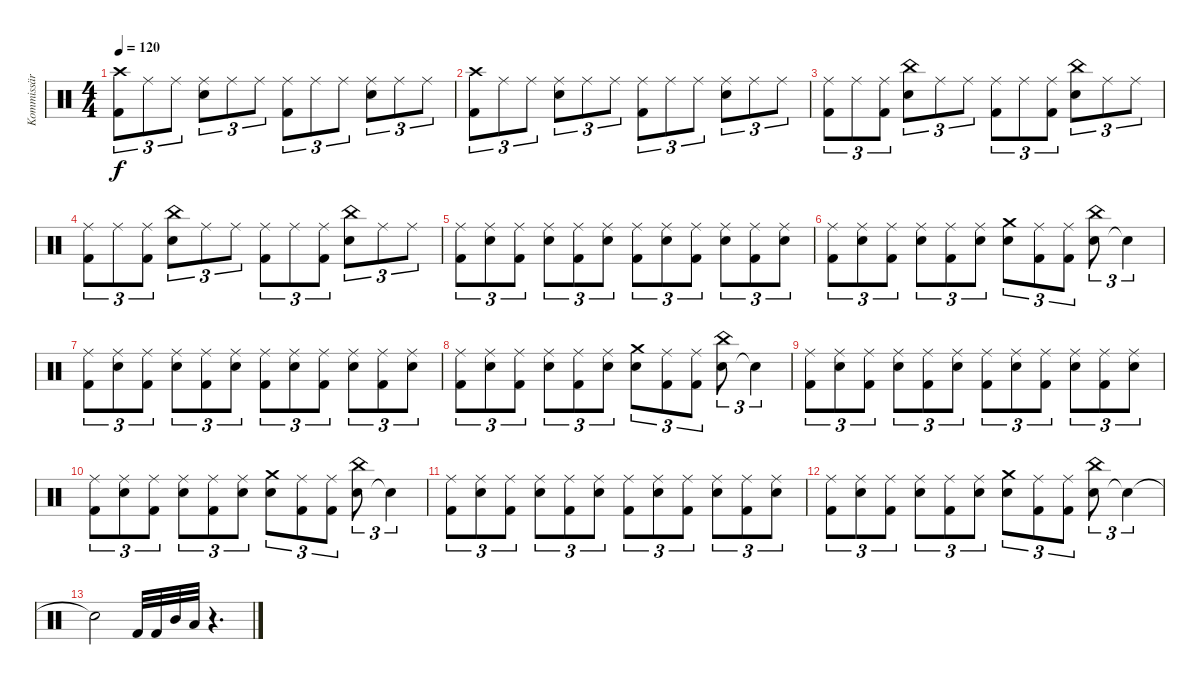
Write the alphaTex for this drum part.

\track ("Kommissär Ogrim" "Kommissär ") {instrument percussion}
\staff {score}
\articulation defaults
\ts (4 4)
\tempo 120
\clef neutral
\ks c
("Crash high (hit)" "Kick (hit) 2").8{tu (3 2) dy f} "Ride (middle)".8{tu (3 2)} "Ride (middle)".8{tu (3 2)} ("Snare (hit) 2" "Ride (middle)").8{tu (3 2)} "Ride (middle)".8{tu (3 2)} "Ride (middle)".8{tu (3 2)} ("Ride (middle)" "Kick (hit) 2").8{tu (3 2)} "Ride (middle)".8{tu (3 2)} "Ride (middle)".8{tu (3 2)} ("Snare (hit) 2" "Ride (middle)").8{tu (3 2)} "Ride (middle)".8{tu (3 2)} "Ride (middle)".8{tu (3 2)} |
("Crash high (hit)" "Kick (hit) 2").8{tu (3 2)} "Ride (middle)".8{tu (3 2)} "Ride (middle)".8{tu (3 2)} ("Snare (hit) 2" "Ride (middle)").8{tu (3 2)} "Ride (middle)".8{tu (3 2)} "Ride (middle)".8{tu (3 2)} ("Ride (middle)" "Kick (hit) 2").8{tu (3 2)} "Ride (middle)".8{tu (3 2)} "Ride (middle)".8{tu (3 2)} ("Snare (hit) 2" "Ride (middle)").8{tu (3 2)} "Ride (middle)".8{tu (3 2)} "Ride (middle)".8{tu (3 2)} |
("Ride (middle)" "Kick (hit) 2").8{tu (3 2)} "Ride (middle)".8{tu (3 2)} ("Ride (middle)" "Kick (hit) 2").8{tu (3 2)} ("Snare (hit) 2" "China (hit)").8{tu (3 2)} "Ride (middle)".8{tu (3 2)} "Ride (middle)".8{tu (3 2)} ("Ride (middle)" "Kick (hit) 2").8{tu (3 2)} "Ride (middle)".8{tu (3 2)} ("Ride (middle)" "Kick (hit) 2").8{tu (3 2)} ("Snare (hit) 2" "China (hit)").8{tu (3 2)} "Ride (middle)".8{tu (3 2)} "Ride (middle)".8{tu (3 2)} |
("Ride (middle)" "Kick (hit) 2").8{tu (3 2)} "Ride (middle)".8{tu (3 2)} ("Ride (middle)" "Kick (hit) 2").8{tu (3 2)} ("Snare (hit) 2" "China (hit)").8{tu (3 2)} "Ride (middle)".8{tu (3 2)} "Ride (middle)".8{tu (3 2)} ("Ride (middle)" "Kick (hit) 2").8{tu (3 2)} "Ride (middle)".8{tu (3 2)} ("Ride (middle)" "Kick (hit) 2").8{tu (3 2)} ("Snare (hit) 2" "China (hit)").8{tu (3 2)} "Ride (middle)".8{tu (3 2)} "Ride (middle)".8{tu (3 2)} |
("Ride (middle)" "Kick (hit) 2").8{tu (3 2)} ("Snare (hit) 2" "Ride (middle)").8{tu (3 2)} ("Ride (middle)" "Kick (hit) 2").8{tu (3 2)} ("Snare (hit) 2" "Ride (middle)").8{tu (3 2)} ("Ride (middle)" "Kick (hit) 2").8{tu (3 2)} ("Snare (hit) 2" "Ride (middle)").8{tu (3 2)} ("Ride (middle)" "Kick (hit) 2").8{tu (3 2)} ("Snare (hit) 2" "Ride (middle)").8{tu (3 2)} ("Ride (middle)" "Kick (hit) 2").8{tu (3 2)} ("Snare (hit) 2" "Ride (middle)").8{tu (3 2)} ("Ride (middle)" "Kick (hit) 2").8{tu (3 2)} ("Snare (hit) 2" "Ride (middle)").8{tu (3 2)} |
("Ride (middle)" "Kick (hit) 2").8{tu (3 2)} ("Snare (hit) 2" "Ride (middle)").8{tu (3 2)} ("Ride (middle)" "Kick (hit) 2").8{tu (3 2)} ("Snare (hit) 2" "Ride (middle)").8{tu (3 2)} ("Ride (middle)" "Kick (hit) 2").8{tu (3 2)} ("Snare (hit) 2" "Ride (middle)").8{tu (3 2)} ("Snare (hit) 2" "Crash medium (hit)").8{tu (3 2)} ("Ride (middle)" "Kick (hit) 2").8{tu (3 2)} ("Ride (middle)" "Kick (hit) 2").8{tu (3 2)} ("Snare (hit) 2" "China (hit)").8{tu (3 2)} "Snare (hit)"{t}.4{tu (3 2)} |
("Ride (middle)" "Kick (hit) 2").8{tu (3 2)} ("Snare (hit) 2" "Ride (middle)").8{tu (3 2)} ("Ride (middle)" "Kick (hit) 2").8{tu (3 2)} ("Snare (hit) 2" "Ride (middle)").8{tu (3 2)} ("Ride (middle)" "Kick (hit) 2").8{tu (3 2)} ("Snare (hit) 2" "Ride (middle)").8{tu (3 2)} ("Ride (middle)" "Kick (hit) 2").8{tu (3 2)} ("Snare (hit) 2" "Ride (middle)").8{tu (3 2)} ("Ride (middle)" "Kick (hit) 2").8{tu (3 2)} ("Snare (hit) 2" "Ride (middle)").8{tu (3 2)} ("Ride (middle)" "Kick (hit) 2").8{tu (3 2)} ("Snare (hit) 2" "Ride (middle)").8{tu (3 2)} |
("Ride (middle)" "Kick (hit) 2").8{tu (3 2)} ("Snare (hit) 2" "Ride (middle)").8{tu (3 2)} ("Ride (middle)" "Kick (hit) 2").8{tu (3 2)} ("Snare (hit) 2" "Ride (middle)").8{tu (3 2)} ("Ride (middle)" "Kick (hit) 2").8{tu (3 2)} ("Snare (hit) 2" "Ride (middle)").8{tu (3 2)} ("Snare (hit) 2" "Crash medium (hit)").8{tu (3 2)} ("Ride (middle)" "Kick (hit) 2").8{tu (3 2)} ("Ride (middle)" "Kick (hit) 2").8{tu (3 2)} ("Snare (hit) 2" "China (hit)").8{tu (3 2)} "Snare (hit)"{t}.4{tu (3 2)} |
("Ride (middle)" "Kick (hit) 2").8{tu (3 2)} ("Snare (hit) 2" "Ride (middle)").8{tu (3 2)} ("Ride (middle)" "Kick (hit) 2").8{tu (3 2)} ("Snare (hit) 2" "Ride (middle)").8{tu (3 2)} ("Ride (middle)" "Kick (hit) 2").8{tu (3 2)} ("Snare (hit) 2" "Ride (middle)").8{tu (3 2)} ("Ride (middle)" "Kick (hit) 2").8{tu (3 2)} ("Snare (hit) 2" "Ride (middle)").8{tu (3 2)} ("Ride (middle)" "Kick (hit) 2").8{tu (3 2)} ("Snare (hit) 2" "Ride (middle)").8{tu (3 2)} ("Ride (middle)" "Kick (hit) 2").8{tu (3 2)} ("Snare (hit) 2" "Ride (middle)").8{tu (3 2)} |
("Ride (middle)" "Kick (hit) 2").8{tu (3 2)} ("Snare (hit) 2" "Ride (middle)").8{tu (3 2)} ("Ride (middle)" "Kick (hit) 2").8{tu (3 2)} ("Snare (hit) 2" "Ride (middle)").8{tu (3 2)} ("Ride (middle)" "Kick (hit) 2").8{tu (3 2)} ("Snare (hit) 2" "Ride (middle)").8{tu (3 2)} ("Snare (hit) 2" "Crash medium (hit)").8{tu (3 2)} ("Ride (middle)" "Kick (hit) 2").8{tu (3 2)} ("Ride (middle)" "Kick (hit) 2").8{tu (3 2)} ("Snare (hit) 2" "China (hit)").8{tu (3 2)} "Snare (hit)"{t}.4{tu (3 2)} |
("Ride (middle)" "Kick (hit) 2").8{tu (3 2)} ("Snare (hit) 2" "Ride (middle)").8{tu (3 2)} ("Ride (middle)" "Kick (hit) 2").8{tu (3 2)} ("Snare (hit) 2" "Ride (middle)").8{tu (3 2)} ("Ride (middle)" "Kick (hit) 2").8{tu (3 2)} ("Snare (hit) 2" "Ride (middle)").8{tu (3 2)} ("Ride (middle)" "Kick (hit) 2").8{tu (3 2)} ("Snare (hit) 2" "Ride (middle)").8{tu (3 2)} ("Ride (middle)" "Kick (hit) 2").8{tu (3 2)} ("Snare (hit) 2" "Ride (middle)").8{tu (3 2)} ("Ride (middle)" "Kick (hit) 2").8{tu (3 2)} ("Snare (hit) 2" "Ride (middle)").8{tu (3 2)} |
("Ride (middle)" "Kick (hit) 2").8{tu (3 2)} ("Snare (hit) 2" "Ride (middle)").8{tu (3 2)} ("Ride (middle)" "Kick (hit) 2").8{tu (3 2)} ("Snare (hit) 2" "Ride (middle)").8{tu (3 2)} ("Ride (middle)" "Kick (hit) 2").8{tu (3 2)} ("Snare (hit) 2" "Ride (middle)").8{tu (3 2)} ("Snare (hit) 2" "Crash medium (hit)").8{tu (3 2)} ("Ride (middle)" "Kick (hit) 2").8{tu (3 2)} ("Ride (middle)" "Kick (hit) 2").8{tu (3 2)} ("Snare (hit) 2" "China (hit)").8{tu (3 2)} "Snare (hit)"{t}.4{tu (3 2)} |
"Snare (hit)"{t}.2 "Kick (hit) 2".32 "Kick (hit) 2".32 "Mid Tom (hit)".32 "Low Tom (hit)".32 r.4{d}
